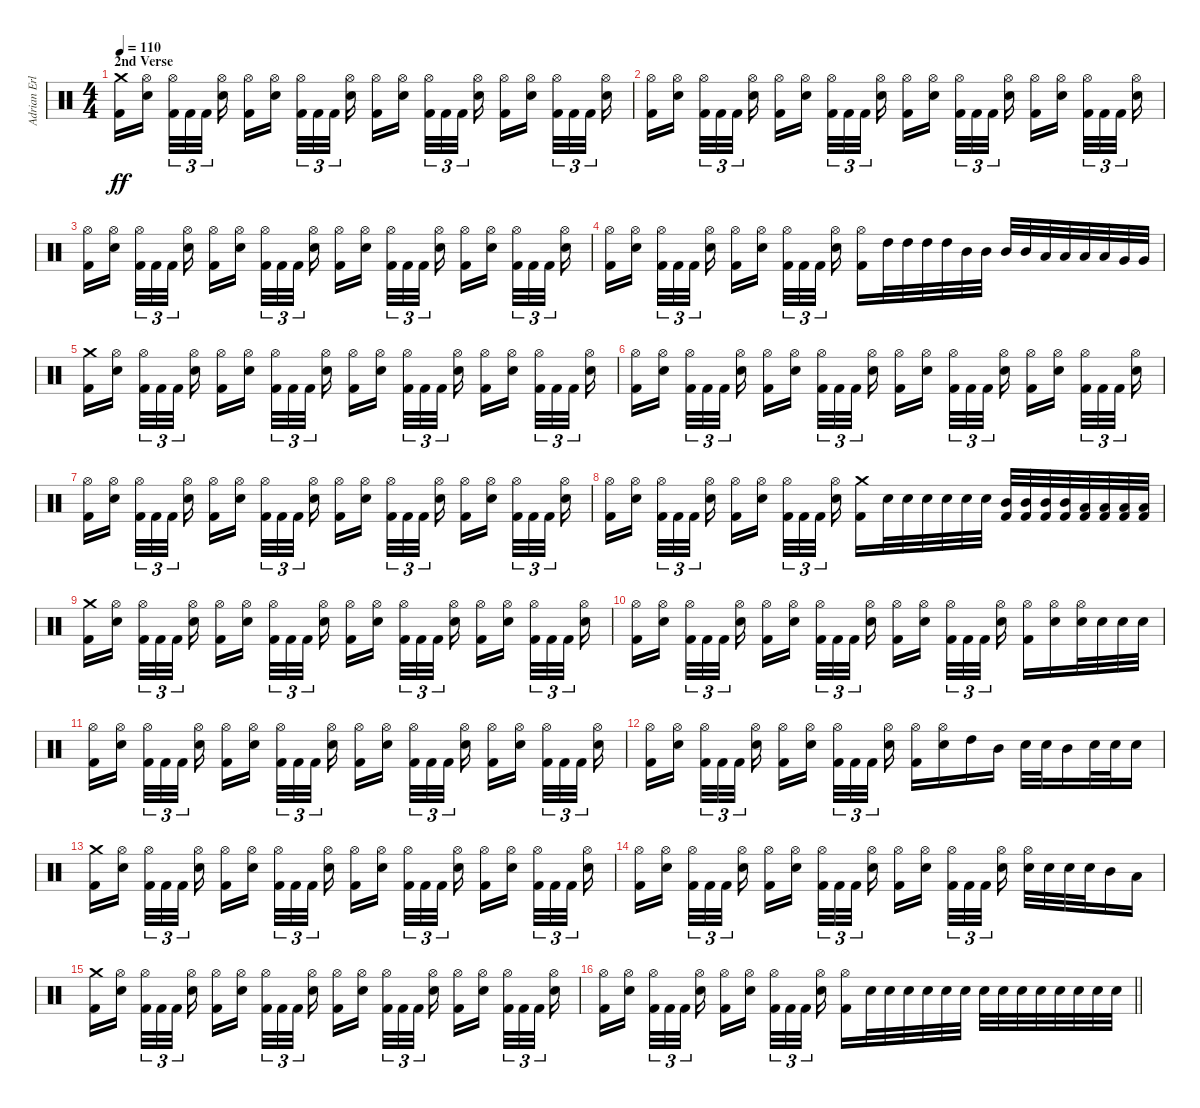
\track ("Adrian Erlandsson" "Adrian Erl") {instrument percussion}
\staff {score}
\articulation defaults
\ts (4 4)
\section ("" "2nd Verse")
\tempo 110
\clef neutral
\ks c
("Kick (hit) 2" "Crash medium (hit)").16{dy ff} ("Electric Snare (hit)" "Hi-Hat (open)").16{beam splitsecondary} ("Kick (hit) 2" "Hi-Hat (open)").32{tu (3 2)} "Kick (hit) 2".32{tu (3 2)} "Kick (hit) 2".32{tu (3 2) beam splitsecondary} ("Electric Snare (hit)" "Hi-Hat (open)").16 ("Kick (hit) 2" "Hi-Hat (open)").16 ("Electric Snare (hit)" "Hi-Hat (open)").16{beam splitsecondary} ("Kick (hit) 2" "Hi-Hat (open)").32{tu (3 2)} "Kick (hit) 2".32{tu (3 2)} "Kick (hit) 2".32{tu (3 2) beam splitsecondary} ("Electric Snare (hit)" "Hi-Hat (open)").16 ("Kick (hit) 2" "Hi-Hat (open)").16 ("Electric Snare (hit)" "Hi-Hat (open)").16{beam splitsecondary} ("Kick (hit) 2" "Hi-Hat (open)").32{tu (3 2)} "Kick (hit) 2".32{tu (3 2)} "Kick (hit) 2".32{tu (3 2) beam splitsecondary} ("Electric Snare (hit)" "Hi-Hat (open)").16 ("Kick (hit) 2" "Hi-Hat (open)").16 ("Electric Snare (hit)" "Hi-Hat (open)").16{beam splitsecondary} ("Kick (hit) 2" "Hi-Hat (open)").32{tu (3 2)} "Kick (hit) 2".32{tu (3 2)} "Kick (hit) 2".32{tu (3 2) beam splitsecondary} ("Electric Snare (hit)" "Hi-Hat (open)").16 |
("Kick (hit) 2" "Hi-Hat (open)").16 ("Electric Snare (hit)" "Hi-Hat (open)").16{beam splitsecondary} ("Kick (hit) 2" "Hi-Hat (open)").32{tu (3 2)} "Kick (hit) 2".32{tu (3 2)} "Kick (hit) 2".32{tu (3 2) beam splitsecondary} ("Electric Snare (hit)" "Hi-Hat (open)").16 ("Kick (hit) 2" "Hi-Hat (open)").16 ("Electric Snare (hit)" "Hi-Hat (open)").16{beam splitsecondary} ("Kick (hit) 2" "Hi-Hat (open)").32{tu (3 2)} "Kick (hit) 2".32{tu (3 2)} "Kick (hit) 2".32{tu (3 2) beam splitsecondary} ("Electric Snare (hit)" "Hi-Hat (open)").16 ("Kick (hit) 2" "Hi-Hat (open)").16 ("Electric Snare (hit)" "Hi-Hat (open)").16{beam splitsecondary} ("Kick (hit) 2" "Hi-Hat (open)").32{tu (3 2)} "Kick (hit) 2".32{tu (3 2)} "Kick (hit) 2".32{tu (3 2) beam splitsecondary} ("Electric Snare (hit)" "Hi-Hat (open)").16 ("Kick (hit) 2" "Hi-Hat (open)").16 ("Electric Snare (hit)" "Hi-Hat (open)").16{beam splitsecondary} ("Kick (hit) 2" "Hi-Hat (open)").32{tu (3 2)} "Kick (hit) 2".32{tu (3 2)} "Kick (hit) 2".32{tu (3 2) beam splitsecondary} ("Electric Snare (hit)" "Hi-Hat (open)").16 |
("Kick (hit) 2" "Hi-Hat (open)").16 ("Electric Snare (hit)" "Hi-Hat (open)").16{beam splitsecondary} ("Kick (hit) 2" "Hi-Hat (open)").32{tu (3 2)} "Kick (hit) 2".32{tu (3 2)} "Kick (hit) 2".32{tu (3 2) beam splitsecondary} ("Electric Snare (hit)" "Hi-Hat (open)").16 ("Kick (hit) 2" "Hi-Hat (open)").16 ("Electric Snare (hit)" "Hi-Hat (open)").16{beam splitsecondary} ("Kick (hit) 2" "Hi-Hat (open)").32{tu (3 2)} "Kick (hit) 2".32{tu (3 2)} "Kick (hit) 2".32{tu (3 2) beam splitsecondary} ("Electric Snare (hit)" "Hi-Hat (open)").16 ("Kick (hit) 2" "Hi-Hat (open)").16 ("Electric Snare (hit)" "Hi-Hat (open)").16{beam splitsecondary} ("Kick (hit) 2" "Hi-Hat (open)").32{tu (3 2)} "Kick (hit) 2".32{tu (3 2)} "Kick (hit) 2".32{tu (3 2) beam splitsecondary} ("Electric Snare (hit)" "Hi-Hat (open)").16 ("Kick (hit) 2" "Hi-Hat (open)").16 ("Electric Snare (hit)" "Hi-Hat (open)").16{beam splitsecondary} ("Kick (hit) 2" "Hi-Hat (open)").32{tu (3 2)} "Kick (hit) 2".32{tu (3 2)} "Kick (hit) 2".32{tu (3 2) beam splitsecondary} ("Electric Snare (hit)" "Hi-Hat (open)").16 |
("Kick (hit) 2" "Hi-Hat (open)").16 ("Electric Snare (hit)" "Hi-Hat (open)").16{beam splitsecondary} ("Kick (hit) 2" "Hi-Hat (open)").32{tu (3 2)} "Kick (hit) 2".32{tu (3 2)} "Kick (hit) 2".32{tu (3 2) beam splitsecondary} ("Electric Snare (hit)" "Hi-Hat (open)").16 ("Kick (hit) 2" "Hi-Hat (open)").16 ("Electric Snare (hit)" "Hi-Hat (open)").16{beam splitsecondary} ("Kick (hit) 2" "Hi-Hat (open)").32{tu (3 2)} "Kick (hit) 2".32{tu (3 2)} "Kick (hit) 2".32{tu (3 2) beam splitsecondary} ("Electric Snare (hit)" "Hi-Hat (open)").16 ("Kick (hit) 2" "Hi-Hat (open)").16 "High Tom (hit)".32 "High Tom (hit)".32 "High Tom (hit)".32 "High Tom (hit)".32 "Mid Tom (hit)".32 "Mid Tom (hit)".32 "Mid Tom (hit)".32 "Mid Tom (hit)".32 "Low Tom (hit)".32 "Low Tom (hit)".32 "Low Tom (hit)".32 "Low Tom (hit)".32 "Very Low Tom (hit)".32 "Very Low Tom (hit)".32 |
("Kick (hit) 2" "Crash medium (hit)").16 ("Electric Snare (hit)" "Hi-Hat (open)").16{beam splitsecondary} ("Kick (hit) 2" "Hi-Hat (open)").32{tu (3 2)} "Kick (hit) 2".32{tu (3 2)} "Kick (hit) 2".32{tu (3 2) beam splitsecondary} ("Electric Snare (hit)" "Hi-Hat (open)").16 ("Kick (hit) 2" "Hi-Hat (open)").16 ("Electric Snare (hit)" "Hi-Hat (open)").16{beam splitsecondary} ("Kick (hit) 2" "Hi-Hat (open)").32{tu (3 2)} "Kick (hit) 2".32{tu (3 2)} "Kick (hit) 2".32{tu (3 2) beam splitsecondary} ("Electric Snare (hit)" "Hi-Hat (open)").16 ("Kick (hit) 2" "Hi-Hat (open)").16 ("Electric Snare (hit)" "Hi-Hat (open)").16{beam splitsecondary} ("Kick (hit) 2" "Hi-Hat (open)").32{tu (3 2)} "Kick (hit) 2".32{tu (3 2)} "Kick (hit) 2".32{tu (3 2) beam splitsecondary} ("Electric Snare (hit)" "Hi-Hat (open)").16 ("Kick (hit) 2" "Hi-Hat (open)").16 ("Electric Snare (hit)" "Hi-Hat (open)").16{beam splitsecondary} ("Kick (hit) 2" "Hi-Hat (open)").32{tu (3 2)} "Kick (hit) 2".32{tu (3 2)} "Kick (hit) 2".32{tu (3 2) beam splitsecondary} ("Electric Snare (hit)" "Hi-Hat (open)").16 |
("Kick (hit) 2" "Hi-Hat (open)").16 ("Electric Snare (hit)" "Hi-Hat (open)").16{beam splitsecondary} ("Kick (hit) 2" "Hi-Hat (open)").32{tu (3 2)} "Kick (hit) 2".32{tu (3 2)} "Kick (hit) 2".32{tu (3 2) beam splitsecondary} ("Electric Snare (hit)" "Hi-Hat (open)").16 ("Kick (hit) 2" "Hi-Hat (open)").16 ("Electric Snare (hit)" "Hi-Hat (open)").16{beam splitsecondary} ("Kick (hit) 2" "Hi-Hat (open)").32{tu (3 2)} "Kick (hit) 2".32{tu (3 2)} "Kick (hit) 2".32{tu (3 2) beam splitsecondary} ("Electric Snare (hit)" "Hi-Hat (open)").16 ("Kick (hit) 2" "Hi-Hat (open)").16 ("Electric Snare (hit)" "Hi-Hat (open)").16{beam splitsecondary} ("Kick (hit) 2" "Hi-Hat (open)").32{tu (3 2)} "Kick (hit) 2".32{tu (3 2)} "Kick (hit) 2".32{tu (3 2) beam splitsecondary} ("Electric Snare (hit)" "Hi-Hat (open)").16 ("Kick (hit) 2" "Hi-Hat (open)").16 ("Electric Snare (hit)" "Hi-Hat (open)").16{beam splitsecondary} ("Kick (hit) 2" "Hi-Hat (open)").32{tu (3 2)} "Kick (hit) 2".32{tu (3 2)} "Kick (hit) 2".32{tu (3 2) beam splitsecondary} ("Electric Snare (hit)" "Hi-Hat (open)").16 |
("Kick (hit) 2" "Hi-Hat (open)").16 ("Electric Snare (hit)" "Hi-Hat (open)").16{beam splitsecondary} ("Kick (hit) 2" "Hi-Hat (open)").32{tu (3 2)} "Kick (hit) 2".32{tu (3 2)} "Kick (hit) 2".32{tu (3 2) beam splitsecondary} ("Electric Snare (hit)" "Hi-Hat (open)").16 ("Kick (hit) 2" "Hi-Hat (open)").16 ("Electric Snare (hit)" "Hi-Hat (open)").16{beam splitsecondary} ("Kick (hit) 2" "Hi-Hat (open)").32{tu (3 2)} "Kick (hit) 2".32{tu (3 2)} "Kick (hit) 2".32{tu (3 2) beam splitsecondary} ("Electric Snare (hit)" "Hi-Hat (open)").16 ("Kick (hit) 2" "Hi-Hat (open)").16 ("Electric Snare (hit)" "Hi-Hat (open)").16{beam splitsecondary} ("Kick (hit) 2" "Hi-Hat (open)").32{tu (3 2)} "Kick (hit) 2".32{tu (3 2)} "Kick (hit) 2".32{tu (3 2) beam splitsecondary} ("Electric Snare (hit)" "Hi-Hat (open)").16 ("Kick (hit) 2" "Hi-Hat (open)").16 ("Electric Snare (hit)" "Hi-Hat (open)").16{beam splitsecondary} ("Kick (hit) 2" "Hi-Hat (open)").32{tu (3 2)} "Kick (hit) 2".32{tu (3 2)} "Kick (hit) 2".32{tu (3 2) beam splitsecondary} ("Electric Snare (hit)" "Hi-Hat (open)").16 |
("Kick (hit) 2" "Hi-Hat (open)").16 ("Electric Snare (hit)" "Hi-Hat (open)").16{beam splitsecondary} ("Kick (hit) 2" "Hi-Hat (open)").32{tu (3 2)} "Kick (hit) 2".32{tu (3 2)} "Kick (hit) 2".32{tu (3 2) beam splitsecondary} ("Electric Snare (hit)" "Hi-Hat (open)").16 ("Kick (hit) 2" "Hi-Hat (open)").16 ("Electric Snare (hit)" "Hi-Hat (open)").16{beam splitsecondary} ("Kick (hit) 2" "Hi-Hat (open)").32{tu (3 2)} "Kick (hit) 2".32{tu (3 2)} "Kick (hit) 2".32{tu (3 2) beam splitsecondary} ("Electric Snare (hit)" "Hi-Hat (open)").16 ("Kick (hit) 2" "Crash medium (hit)").16 "Electric Snare (hit)".32 "Electric Snare (hit)".32 "Electric Snare (hit)".32 "Electric Snare (hit)".32 "Electric Snare (hit)".32 "Electric Snare (hit)".32 ("Kick (hit) 2" "Mid Tom (hit)").32 ("Kick (hit) 2" "Mid Tom (hit)").32 ("Kick (hit) 2" "Mid Tom (hit)").32 ("Kick (hit) 2" "Mid Tom (hit)").32 ("Kick (hit) 2" "Low Tom (hit)").32 ("Kick (hit) 2" "Low Tom (hit)").32 ("Kick (hit) 2" "Low Tom (hit)").32 ("Kick (hit) 2" "Low Tom (hit)").32 |
("Kick (hit) 2" "Crash medium (hit)").16 ("Electric Snare (hit)" "Hi-Hat (open)").16{beam splitsecondary} ("Kick (hit) 2" "Hi-Hat (open)").32{tu (3 2)} "Kick (hit) 2".32{tu (3 2)} "Kick (hit) 2".32{tu (3 2) beam splitsecondary} ("Electric Snare (hit)" "Hi-Hat (open)").16 ("Kick (hit) 2" "Hi-Hat (open)").16 ("Electric Snare (hit)" "Hi-Hat (open)").16{beam splitsecondary} ("Kick (hit) 2" "Hi-Hat (open)").32{tu (3 2)} "Kick (hit) 2".32{tu (3 2)} "Kick (hit) 2".32{tu (3 2) beam splitsecondary} ("Electric Snare (hit)" "Hi-Hat (open)").16 ("Kick (hit) 2" "Hi-Hat (open)").16 ("Electric Snare (hit)" "Hi-Hat (open)").16{beam splitsecondary} ("Kick (hit) 2" "Hi-Hat (open)").32{tu (3 2)} "Kick (hit) 2".32{tu (3 2)} "Kick (hit) 2".32{tu (3 2) beam splitsecondary} ("Electric Snare (hit)" "Hi-Hat (open)").16 ("Kick (hit) 2" "Hi-Hat (open)").16 ("Electric Snare (hit)" "Hi-Hat (open)").16{beam splitsecondary} ("Kick (hit) 2" "Hi-Hat (open)").32{tu (3 2)} "Kick (hit) 2".32{tu (3 2)} "Kick (hit) 2".32{tu (3 2) beam splitsecondary} ("Electric Snare (hit)" "Hi-Hat (open)").16 |
("Kick (hit) 2" "Hi-Hat (open)").16 ("Electric Snare (hit)" "Hi-Hat (open)").16{beam splitsecondary} ("Kick (hit) 2" "Hi-Hat (open)").32{tu (3 2)} "Kick (hit) 2".32{tu (3 2)} "Kick (hit) 2".32{tu (3 2) beam splitsecondary} ("Electric Snare (hit)" "Hi-Hat (open)").16 ("Kick (hit) 2" "Hi-Hat (open)").16 ("Electric Snare (hit)" "Hi-Hat (open)").16{beam splitsecondary} ("Kick (hit) 2" "Hi-Hat (open)").32{tu (3 2)} "Kick (hit) 2".32{tu (3 2)} "Kick (hit) 2".32{tu (3 2) beam splitsecondary} ("Electric Snare (hit)" "Hi-Hat (open)").16 ("Kick (hit) 2" "Hi-Hat (open)").16 ("Electric Snare (hit)" "Hi-Hat (open)").16{beam splitsecondary} ("Kick (hit) 2" "Hi-Hat (open)").32{tu (3 2)} "Kick (hit) 2".32{tu (3 2)} "Kick (hit) 2".32{tu (3 2) beam splitsecondary} ("Electric Snare (hit)" "Hi-Hat (open)").16 ("Kick (hit) 2" "Hi-Hat (open)").16 ("Electric Snare (hit)" "Hi-Hat (open)").16 ("Electric Snare (hit)" "Hi-Hat (open)").32 "Electric Snare (hit)".32 "Electric Snare (hit)".32 "Electric Snare (hit)".32 |
("Kick (hit) 2" "Hi-Hat (open)").16 ("Electric Snare (hit)" "Hi-Hat (open)").16{beam splitsecondary} ("Kick (hit) 2" "Hi-Hat (open)").32{tu (3 2)} "Kick (hit) 2".32{tu (3 2)} "Kick (hit) 2".32{tu (3 2) beam splitsecondary} ("Electric Snare (hit)" "Hi-Hat (open)").16 ("Kick (hit) 2" "Hi-Hat (open)").16 ("Electric Snare (hit)" "Hi-Hat (open)").16{beam splitsecondary} ("Kick (hit) 2" "Hi-Hat (open)").32{tu (3 2)} "Kick (hit) 2".32{tu (3 2)} "Kick (hit) 2".32{tu (3 2) beam splitsecondary} ("Electric Snare (hit)" "Hi-Hat (open)").16 ("Kick (hit) 2" "Hi-Hat (open)").16 ("Electric Snare (hit)" "Hi-Hat (open)").16{beam splitsecondary} ("Kick (hit) 2" "Hi-Hat (open)").32{tu (3 2)} "Kick (hit) 2".32{tu (3 2)} "Kick (hit) 2".32{tu (3 2) beam splitsecondary} ("Electric Snare (hit)" "Hi-Hat (open)").16 ("Kick (hit) 2" "Hi-Hat (open)").16 ("Electric Snare (hit)" "Hi-Hat (open)").16{beam splitsecondary} ("Kick (hit) 2" "Hi-Hat (open)").32{tu (3 2)} "Kick (hit) 2".32{tu (3 2)} "Kick (hit) 2".32{tu (3 2) beam splitsecondary} ("Electric Snare (hit)" "Hi-Hat (open)").16 |
("Kick (hit) 2" "Hi-Hat (open)").16 ("Electric Snare (hit)" "Hi-Hat (open)").16{beam splitsecondary} ("Kick (hit) 2" "Hi-Hat (open)").32{tu (3 2)} "Kick (hit) 2".32{tu (3 2)} "Kick (hit) 2".32{tu (3 2) beam splitsecondary} ("Electric Snare (hit)" "Hi-Hat (open)").16 ("Kick (hit) 2" "Hi-Hat (open)").16 ("Electric Snare (hit)" "Hi-Hat (open)").16{beam splitsecondary} ("Kick (hit) 2" "Hi-Hat (open)").32{tu (3 2)} "Kick (hit) 2".32{tu (3 2)} "Kick (hit) 2".32{tu (3 2) beam splitsecondary} ("Electric Snare (hit)" "Hi-Hat (open)").16 ("Kick (hit) 2" "Hi-Hat (open)").16 ("Electric Snare (hit)" "Hi-Hat (open)").16 "High Tom (hit)".16 "Mid Tom (hit)".16 "Electric Snare (hit)".32 "Electric Snare (hit)".32 "Mid Tom (hit)".16 "Electric Snare (hit)".32 "Electric Snare (hit)".32 "Electric Snare (hit)".16 |
("Kick (hit) 2" "Crash medium (hit)").16 ("Electric Snare (hit)" "Hi-Hat (open)").16{beam splitsecondary} ("Kick (hit) 2" "Hi-Hat (open)").32{tu (3 2)} "Kick (hit) 2".32{tu (3 2)} "Kick (hit) 2".32{tu (3 2) beam splitsecondary} ("Electric Snare (hit)" "Hi-Hat (open)").16 ("Kick (hit) 2" "Hi-Hat (open)").16 ("Electric Snare (hit)" "Hi-Hat (open)").16{beam splitsecondary} ("Kick (hit) 2" "Hi-Hat (open)").32{tu (3 2)} "Kick (hit) 2".32{tu (3 2)} "Kick (hit) 2".32{tu (3 2) beam splitsecondary} ("Electric Snare (hit)" "Hi-Hat (open)").16 ("Kick (hit) 2" "Hi-Hat (open)").16 ("Electric Snare (hit)" "Hi-Hat (open)").16{beam splitsecondary} ("Kick (hit) 2" "Hi-Hat (open)").32{tu (3 2)} "Kick (hit) 2".32{tu (3 2)} "Kick (hit) 2".32{tu (3 2) beam splitsecondary} ("Electric Snare (hit)" "Hi-Hat (open)").16 ("Kick (hit) 2" "Hi-Hat (open)").16 ("Electric Snare (hit)" "Hi-Hat (open)").16{beam splitsecondary} ("Kick (hit) 2" "Hi-Hat (open)").32{tu (3 2)} "Kick (hit) 2".32{tu (3 2)} "Kick (hit) 2".32{tu (3 2) beam splitsecondary} ("Electric Snare (hit)" "Hi-Hat (open)").16 |
("Kick (hit) 2" "Hi-Hat (open)").16 ("Electric Snare (hit)" "Hi-Hat (open)").16{beam splitsecondary} ("Kick (hit) 2" "Hi-Hat (open)").32{tu (3 2)} "Kick (hit) 2".32{tu (3 2)} "Kick (hit) 2".32{tu (3 2) beam splitsecondary} ("Electric Snare (hit)" "Hi-Hat (open)").16 ("Kick (hit) 2" "Hi-Hat (open)").16 ("Electric Snare (hit)" "Hi-Hat (open)").16{beam splitsecondary} ("Kick (hit) 2" "Hi-Hat (open)").32{tu (3 2)} "Kick (hit) 2".32{tu (3 2)} "Kick (hit) 2".32{tu (3 2) beam splitsecondary} ("Electric Snare (hit)" "Hi-Hat (open)").16 ("Kick (hit) 2" "Hi-Hat (open)").16 ("Electric Snare (hit)" "Hi-Hat (open)").16{beam splitsecondary} ("Kick (hit) 2" "Hi-Hat (open)").32{tu (3 2)} "Kick (hit) 2".32{tu (3 2)} "Kick (hit) 2".32{tu (3 2) beam splitsecondary} ("Electric Snare (hit)" "Hi-Hat (open)").16 ("Electric Snare (hit)" "Hi-Hat (open)").32 "Electric Snare (hit)".32 "Electric Snare (hit)".32 "Electric Snare (hit)".32 "Mid Tom (hit)".16 "Low Tom (hit)".16 |
("Kick (hit) 2" "Crash medium (hit)").16 ("Electric Snare (hit)" "Hi-Hat (open)").16{beam splitsecondary} ("Kick (hit) 2" "Hi-Hat (open)").32{tu (3 2)} "Kick (hit) 2".32{tu (3 2)} "Kick (hit) 2".32{tu (3 2) beam splitsecondary} ("Electric Snare (hit)" "Hi-Hat (open)").16 ("Kick (hit) 2" "Hi-Hat (open)").16 ("Electric Snare (hit)" "Hi-Hat (open)").16{beam splitsecondary} ("Kick (hit) 2" "Hi-Hat (open)").32{tu (3 2)} "Kick (hit) 2".32{tu (3 2)} "Kick (hit) 2".32{tu (3 2) beam splitsecondary} ("Electric Snare (hit)" "Hi-Hat (open)").16 ("Kick (hit) 2" "Hi-Hat (open)").16 ("Electric Snare (hit)" "Hi-Hat (open)").16{beam splitsecondary} ("Kick (hit) 2" "Hi-Hat (open)").32{tu (3 2)} "Kick (hit) 2".32{tu (3 2)} "Kick (hit) 2".32{tu (3 2) beam splitsecondary} ("Electric Snare (hit)" "Hi-Hat (open)").16 ("Kick (hit) 2" "Hi-Hat (open)").16 ("Electric Snare (hit)" "Hi-Hat (open)").16{beam splitsecondary} ("Kick (hit) 2" "Hi-Hat (open)").32{tu (3 2)} "Kick (hit) 2".32{tu (3 2)} "Kick (hit) 2".32{tu (3 2) beam splitsecondary} ("Electric Snare (hit)" "Hi-Hat (open)").16 |
\barLineRight lightlight
("Kick (hit) 2" "Hi-Hat (open)").16 ("Electric Snare (hit)" "Hi-Hat (open)").16{beam splitsecondary} ("Kick (hit) 2" "Hi-Hat (open)").32{tu (3 2)} "Kick (hit) 2".32{tu (3 2)} "Kick (hit) 2".32{tu (3 2) beam splitsecondary} ("Electric Snare (hit)" "Hi-Hat (open)").16 ("Kick (hit) 2" "Hi-Hat (open)").16 ("Electric Snare (hit)" "Hi-Hat (open)").16{beam splitsecondary} ("Kick (hit) 2" "Hi-Hat (open)").32{tu (3 2)} "Kick (hit) 2".32{tu (3 2)} "Kick (hit) 2".32{tu (3 2) beam splitsecondary} ("Electric Snare (hit)" "Hi-Hat (open)").16 ("Kick (hit) 2" "Hi-Hat (open)").16 "Electric Snare (hit)".32 "Electric Snare (hit)".32 "Electric Snare (hit)".32 "Electric Snare (hit)".32 "Electric Snare (hit)".32 "Electric Snare (hit)".32 "Electric Snare (hit)".32 "Electric Snare (hit)".32 "Electric Snare (hit)".32 "Electric Snare (hit)".32 "Electric Snare (hit)".32 "Electric Snare (hit)".32 "Electric Snare (hit)".32 "Electric Snare (hit)".32
